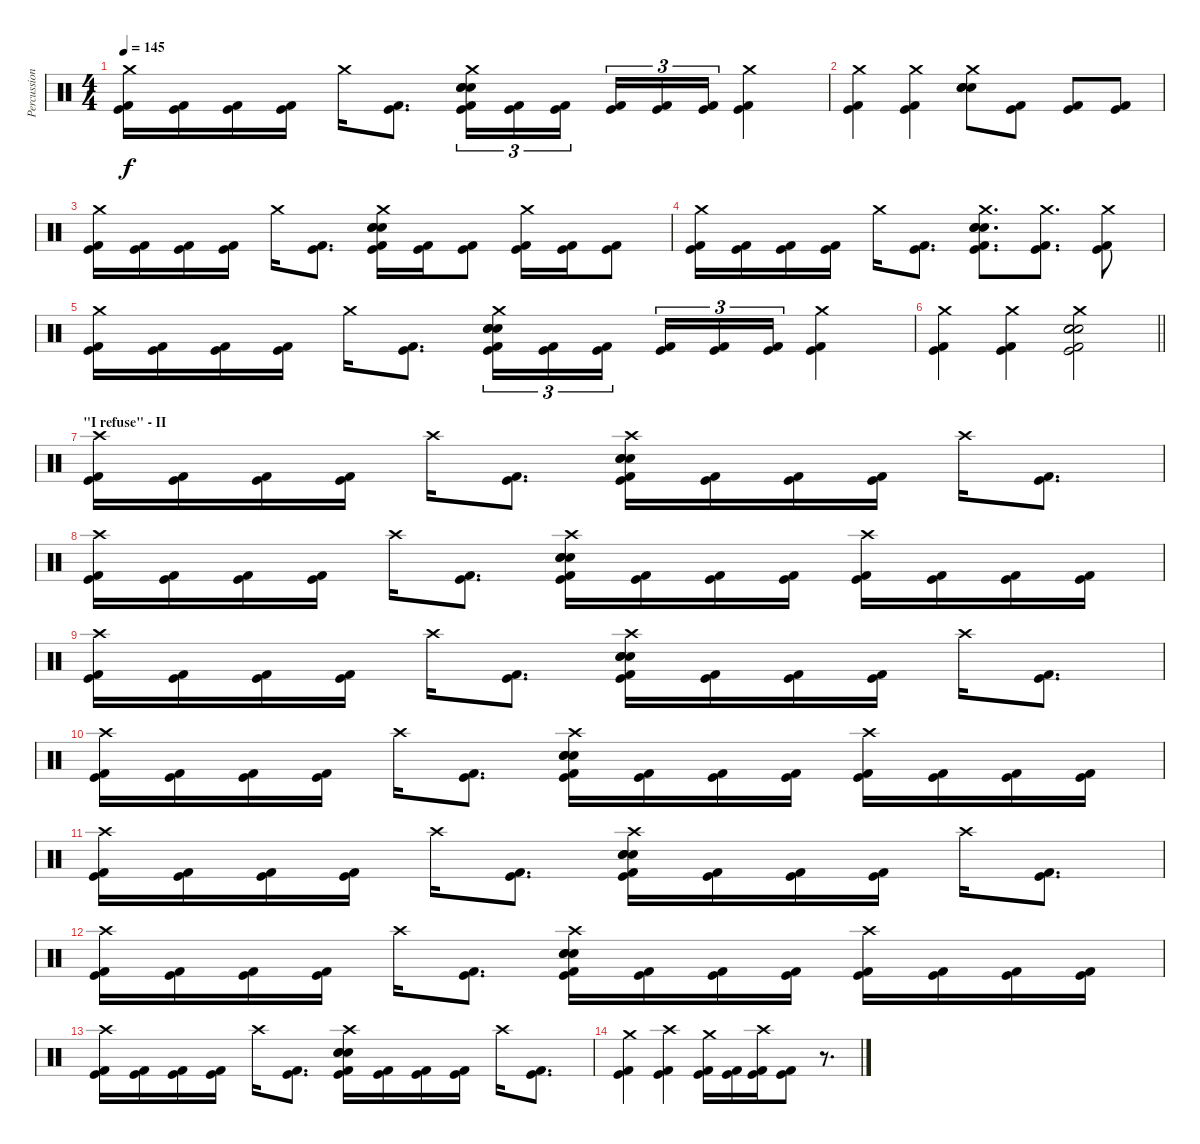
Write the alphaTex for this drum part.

\track ("Percussion" "Percussion") {instrument percussion}
\staff {score}
\articulation defaults
\ts (4 4)
\tempo 145
\clef neutral
\ks c
("Crash medium (hit)" "Kick (hit)" "Kick (hit) 2").16{dy f} ("Kick (hit)" "Kick (hit) 2").16 ("Kick (hit)" "Kick (hit) 2").16 ("Kick (hit)" "Kick (hit) 2").16 "Crash medium (hit)".16 ("Kick (hit)" "Kick (hit) 2").8{d} ("Crash medium (hit)" "Electric Snare (hit)" "Snare (hit) 2" "Snare (hit) 2" "Kick (hit)" "Kick (hit) 2").16{tu (3 2)} ("Kick (hit)" "Kick (hit) 2").16{tu (3 2)} ("Kick (hit)" "Kick (hit) 2").16{tu (3 2) beam splitsecondary} ("Kick (hit)" "Kick (hit) 2").16{tu (3 2)} ("Kick (hit)" "Kick (hit) 2").16{tu (3 2)} ("Kick (hit)" "Kick (hit) 2").16{tu (3 2)} ("Crash medium (hit)" "Kick (hit)" "Kick (hit) 2").4 |
("Crash medium (hit)" "Kick (hit)" "Kick (hit) 2").4 ("Crash medium (hit)" "Kick (hit)" "Kick (hit) 2").4 ("Crash medium (hit)" "Electric Snare (hit)" "Snare (hit) 2" "Electric Snare (hit)").8 ("Kick (hit)" "Kick (hit) 2").8 ("Kick (hit)" "Kick (hit) 2").8 ("Kick (hit)" "Kick (hit) 2").8 |
("Crash medium (hit)" "Kick (hit)" "Kick (hit) 2").16 ("Kick (hit)" "Kick (hit) 2").16 ("Kick (hit)" "Kick (hit) 2").16 ("Kick (hit)" "Kick (hit) 2").16 "Crash medium (hit)".16 ("Kick (hit)" "Kick (hit) 2").8{d} ("Crash medium (hit)" "Electric Snare (hit)" "Snare (hit) 2" "Snare (hit) 2" "Kick (hit)" "Kick (hit) 2").16 ("Kick (hit)" "Kick (hit) 2").16 ("Kick (hit)" "Kick (hit) 2").8 ("Crash medium (hit)" "Kick (hit)" "Kick (hit) 2").16 ("Kick (hit)" "Kick (hit) 2").16 ("Kick (hit)" "Kick (hit) 2").8 |
("Crash medium (hit)" "Kick (hit)" "Kick (hit) 2").16 ("Kick (hit)" "Kick (hit) 2").16 ("Kick (hit)" "Kick (hit) 2").16 ("Kick (hit)" "Kick (hit) 2").16 "Crash medium (hit)".16 ("Kick (hit)" "Kick (hit) 2").8{d} ("Crash medium (hit)" "Electric Snare (hit)" "Snare (hit) 2" "Snare (hit) 2" "Kick (hit)" "Kick (hit) 2").8{d} ("Crash medium (hit)" "Kick (hit)" "Kick (hit) 2").8{d} ("Crash medium (hit)" "Kick (hit)" "Kick (hit) 2").8 |
("Crash medium (hit)" "Kick (hit)" "Kick (hit) 2").16 ("Kick (hit)" "Kick (hit) 2").16 ("Kick (hit)" "Kick (hit) 2").16 ("Kick (hit)" "Kick (hit) 2").16 "Crash medium (hit)".16 ("Kick (hit)" "Kick (hit) 2").8{d} ("Crash medium (hit)" "Electric Snare (hit)" "Snare (hit) 2" "Snare (hit) 2" "Kick (hit)" "Kick (hit) 2").16{tu (3 2)} ("Kick (hit)" "Kick (hit) 2").16{tu (3 2)} ("Kick (hit)" "Kick (hit) 2").16{tu (3 2) beam splitsecondary} ("Kick (hit)" "Kick (hit) 2").16{tu (3 2)} ("Kick (hit)" "Kick (hit) 2").16{tu (3 2)} ("Kick (hit)" "Kick (hit) 2").16{tu (3 2)} ("Crash medium (hit)" "Kick (hit)" "Kick (hit) 2").4 |
\barLineRight lightlight
("Crash medium (hit)" "Kick (hit)" "Kick (hit) 2").4 ("Crash medium (hit)" "Kick (hit)" "Kick (hit) 2").4 ("Crash medium (hit)" "Electric Snare (hit)" "Electric Snare (hit)" "Snare (hit) 2" "Kick (hit)" "Kick (hit) 2").2 |
\section ("" "\"I refuse\" - II")
("Crash high (hit)" "Kick (hit)" "Kick (hit) 2").16 ("Kick (hit)" "Kick (hit) 2").16 ("Kick (hit)" "Kick (hit) 2").16 ("Kick (hit)" "Kick (hit) 2").16 "Crash high (hit)".16 ("Kick (hit)" "Kick (hit) 2").8{d} ("Crash high (hit)" "Electric Snare (hit)" "Snare (hit) 2" "Snare (hit) 2" "Kick (hit)" "Kick (hit) 2").16 ("Kick (hit)" "Kick (hit) 2").16 ("Kick (hit)" "Kick (hit) 2").16 ("Kick (hit)" "Kick (hit) 2").16 "Crash high (hit)".16 ("Kick (hit)" "Kick (hit) 2").8{d} |
("Crash high (hit)" "Kick (hit)" "Kick (hit) 2").16 ("Kick (hit)" "Kick (hit) 2").16 ("Kick (hit)" "Kick (hit) 2").16 ("Kick (hit)" "Kick (hit) 2").16 "Crash high (hit)".16 ("Kick (hit)" "Kick (hit) 2").8{d} ("Crash high (hit)" "Electric Snare (hit)" "Snare (hit) 2" "Snare (hit) 2" "Kick (hit)" "Kick (hit) 2").16 ("Kick (hit)" "Kick (hit) 2").16 ("Kick (hit)" "Kick (hit) 2").16 ("Kick (hit)" "Kick (hit) 2").16 ("Crash high (hit)" "Kick (hit)" "Kick (hit) 2").16 ("Kick (hit)" "Kick (hit) 2").16 ("Kick (hit)" "Kick (hit) 2").16 ("Kick (hit)" "Kick (hit) 2").16 |
("Crash high (hit)" "Kick (hit)" "Kick (hit) 2").16 ("Kick (hit)" "Kick (hit) 2").16 ("Kick (hit)" "Kick (hit) 2").16 ("Kick (hit)" "Kick (hit) 2").16 "Crash high (hit)".16 ("Kick (hit)" "Kick (hit) 2").8{d} ("Crash high (hit)" "Electric Snare (hit)" "Snare (hit) 2" "Snare (hit) 2" "Kick (hit)" "Kick (hit) 2").16 ("Kick (hit)" "Kick (hit) 2").16 ("Kick (hit)" "Kick (hit) 2").16 ("Kick (hit)" "Kick (hit) 2").16 "Crash high (hit)".16 ("Kick (hit)" "Kick (hit) 2").8{d} |
("Crash high (hit)" "Kick (hit)" "Kick (hit) 2").16 ("Kick (hit)" "Kick (hit) 2").16 ("Kick (hit)" "Kick (hit) 2").16 ("Kick (hit)" "Kick (hit) 2").16 "Crash high (hit)".16 ("Kick (hit)" "Kick (hit) 2").8{d} ("Crash high (hit)" "Electric Snare (hit)" "Snare (hit) 2" "Snare (hit) 2" "Kick (hit)" "Kick (hit) 2").16 ("Kick (hit)" "Kick (hit) 2").16 ("Kick (hit)" "Kick (hit) 2").16 ("Kick (hit)" "Kick (hit) 2").16 ("Crash high (hit)" "Kick (hit)" "Kick (hit) 2").16 ("Kick (hit)" "Kick (hit) 2").16 ("Kick (hit)" "Kick (hit) 2").16 ("Kick (hit)" "Kick (hit) 2").16 |
("Crash high (hit)" "Kick (hit)" "Kick (hit) 2").16 ("Kick (hit)" "Kick (hit) 2").16 ("Kick (hit)" "Kick (hit) 2").16 ("Kick (hit)" "Kick (hit) 2").16 "Crash high (hit)".16 ("Kick (hit)" "Kick (hit) 2").8{d} ("Crash high (hit)" "Electric Snare (hit)" "Snare (hit) 2" "Snare (hit) 2" "Kick (hit)" "Kick (hit) 2").16 ("Kick (hit)" "Kick (hit) 2").16 ("Kick (hit)" "Kick (hit) 2").16 ("Kick (hit)" "Kick (hit) 2").16 "Crash high (hit)".16 ("Kick (hit)" "Kick (hit) 2").8{d} |
("Crash high (hit)" "Kick (hit)" "Kick (hit) 2").16 ("Kick (hit)" "Kick (hit) 2").16 ("Kick (hit)" "Kick (hit) 2").16 ("Kick (hit)" "Kick (hit) 2").16 "Crash high (hit)".16 ("Kick (hit)" "Kick (hit) 2").8{d} ("Crash high (hit)" "Electric Snare (hit)" "Snare (hit) 2" "Snare (hit) 2" "Kick (hit)" "Kick (hit) 2").16 ("Kick (hit)" "Kick (hit) 2").16 ("Kick (hit)" "Kick (hit) 2").16 ("Kick (hit)" "Kick (hit) 2").16 ("Crash high (hit)" "Kick (hit)" "Kick (hit) 2").16 ("Kick (hit)" "Kick (hit) 2").16 ("Kick (hit)" "Kick (hit) 2").16 ("Kick (hit)" "Kick (hit) 2").16 |
("Crash high (hit)" "Kick (hit)" "Kick (hit) 2").16 ("Kick (hit)" "Kick (hit) 2").16 ("Kick (hit)" "Kick (hit) 2").16 ("Kick (hit)" "Kick (hit) 2").16 "Crash high (hit)".16 ("Kick (hit)" "Kick (hit) 2").8{d} ("Crash high (hit)" "Electric Snare (hit)" "Snare (hit) 2" "Snare (hit) 2" "Kick (hit)" "Kick (hit) 2").16 ("Kick (hit)" "Kick (hit) 2").16 ("Kick (hit)" "Kick (hit) 2").16 ("Kick (hit)" "Kick (hit) 2").16 "Crash high (hit)".16 ("Kick (hit)" "Kick (hit) 2").8{d} |
("Crash medium (hit)" "Kick (hit)" "Kick (hit) 2").4 ("Crash high (hit)" "Kick (hit)" "Kick (hit) 2").4 ("Crash medium (hit)" "Kick (hit)" "Kick (hit) 2").16 ("Kick (hit)" "Kick (hit) 2").16 ("Crash high (hit)" "Kick (hit)" "Kick (hit) 2").16 ("Kick (hit)" "Kick (hit) 2").8 r.8{d}
